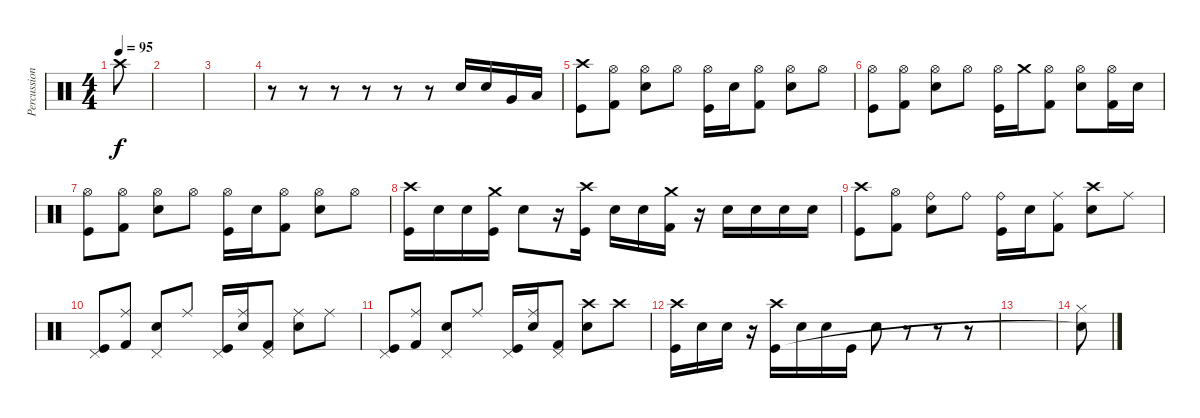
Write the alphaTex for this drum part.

\track ("Percussion" "Percussion") {instrument percussion}
\staff {score}
\articulation defaults
\ts (4 4)
\tempo 95
\clef neutral
\ks c "Crash high (hit)".8{dy f}
|
|
|
r.8 r.8 r.8 r.8 r.8 r.8 "Electric Snare (hit)".16 "Electric Snare (hit)".16 "Very Low Tom (hit)".16 "Low Floor Tom (hit)".16 |
("Crash high (hit)" "Kick (hit)").8 ("Hi-Hat (open)" "Kick (hit) 2").8 ("Hi-Hat (open)" "Electric Snare (hit)").8 "Hi-Hat (open)".8 ("Hi-Hat (open)" "Kick (hit)").16 "Electric Snare (hit)".16 ("Hi-Hat (open)" "Kick (hit) 2").8 ("Hi-Hat (open)" "Electric Snare (hit)").8 "Hi-Hat (open)".8 |
("Hi-Hat (open)" "Kick (hit)").8 ("Hi-Hat (open)" "Kick (hit) 2").8 ("Hi-Hat (open)" "Electric Snare (hit)").8 "Hi-Hat (open)".8 ("Hi-Hat (open)" "Kick (hit)").16 "Crash medium (hit)".16 ("Hi-Hat (open)" "Kick (hit) 2").8 ("Hi-Hat (open)" "Electric Snare (hit)").8 ("Hi-Hat (open)" "Kick (hit) 2").16 "Electric Snare (hit)".16 |
("Hi-Hat (open)" "Kick (hit)").8 ("Hi-Hat (open)" "Kick (hit) 2").8 ("Hi-Hat (open)" "Electric Snare (hit)").8 "Hi-Hat (open)".8 ("Hi-Hat (open)" "Kick (hit)").16 "Electric Snare (hit)".16 ("Hi-Hat (open)" "Kick (hit) 2").8 ("Hi-Hat (open)" "Electric Snare (hit)").8 "Hi-Hat (open)".8 |
("Crash high (hit)" "Kick (hit)").16 "Electric Snare (hit)".16 "Electric Snare (hit)".16 ("Crash medium (hit)" "Kick (hit)").16 "Electric Snare (hit)".8 r.16 ("Crash high (hit)" "Kick (hit)").16 "Electric Snare (hit)".16 "Electric Snare (hit)".16 ("Crash medium (hit)" "Kick (hit) 2").16 r.16 "Electric Snare (hit)".16 "Electric Snare (hit)".16 "Electric Snare (hit)".16 "Electric Snare (hit)".16 |
("Crash high (hit)" "Kick (hit)").8 ("Hi-Hat (open)" "Kick (hit) 2").8 ("Ride (bell)" "Electric Snare (hit)").8 "Ride (bell)".8 ("Ride (bell)" "Kick (hit)").16 "Electric Snare (hit)".16 ("Ride (middle)" "Kick (hit) 2").8 ("Crash high (hit)" "Electric Snare (hit)").8 "Ride (middle)".8 |
("Pedal Hi-Hat (hit)" "Kick (hit)").8 ("Ride (middle)" "Kick (hit) 2").8 ("Pedal Hi-Hat (hit)" "Electric Snare (hit)").8 "Ride (middle)".8 ("Pedal Hi-Hat (hit)" "Kick (hit)").16 ("Ride (middle)" "Electric Snare (hit)").16 ("Pedal Hi-Hat (hit)" "Kick (hit) 2").8 ("Ride (middle)" "Electric Snare (hit)").8 "Ride (middle)".8 |
("Pedal Hi-Hat (hit)" "Kick (hit)").8 ("Ride (middle)" "Kick (hit) 2").8 ("Pedal Hi-Hat (hit)" "Electric Snare (hit)").8 "Ride (middle)".8 ("Pedal Hi-Hat (hit)" "Kick (hit)").16 ("Ride (middle)" "Electric Snare (hit)").16 ("Pedal Hi-Hat (hit)" "Kick (hit) 2").8 ("Crash high (hit)" "Electric Snare (hit)").8 "Crash high (hit)".8 |
("Crash high (hit)" "Kick (hit)").16 "Electric Snare (hit)".16 "Electric Snare (hit)".16 r.16 ("Crash high (hit)" "Kick (hit)").16 "Electric Snare (hit)".16 "Electric Snare (hit)".16 "Kick (hit)".16 "Electric Snare (hit)".8 r.8 r.8 r.8 |
|
("Hi-Hat (closed)" "Snare (hit)"{t}).8
